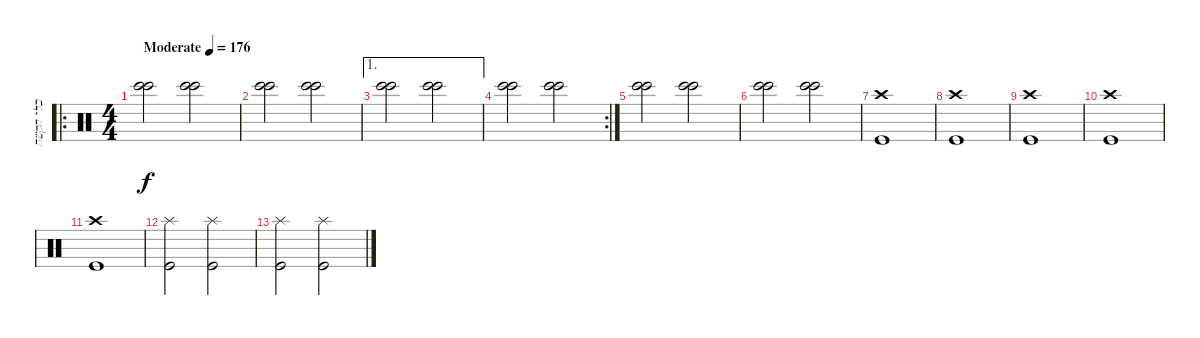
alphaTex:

\track ("כלי הקשה" "כלי הקשה") {instrument percussion}
\staff {score}
\articulation defaults
\ro
\ts (4 4)
\tempo (176 "Moderate")
\clef neutral
\ks c
("Bongo High (hit)" "Bongo High (hit)").2{dy f} ("Bongo High (hit)" "Bongo High (hit)").2 |
("Bongo High (hit)" "Bongo High (hit)").2 ("Bongo High (hit)" "Bongo High (hit)").2 |
\ae 1
("Bongo High (hit)" "Bongo High (hit)").2 ("Bongo High (hit)" "Bongo High (hit)").2 |
\rc 2
("Bongo High (hit)" "Bongo High (hit)").2 ("Bongo High (hit)" "Bongo High (hit)").2 |
("Bongo High (hit)" "Bongo High (hit)").2 ("Bongo High (hit)" "Bongo High (hit)").2 |
("Bongo High (hit)" "Bongo High (hit)").2 ("Bongo High (hit)" "Bongo High (hit)").2 |
("Kick (hit)" "Crash high (hit)").1 |
("Kick (hit)" "Crash high (hit)").1 |
("Kick (hit)" "Crash high (hit)").1 |
("Kick (hit)" "Crash high (hit)").1 |
("Kick (hit)" "Crash high (hit)").1 |
("Kick (hit)" "Splash (hit)").2 ("Kick (hit)" "Splash (hit)").2 |
("Kick (hit)" "Splash (hit)").2 ("Kick (hit)" "Splash (hit)").2
